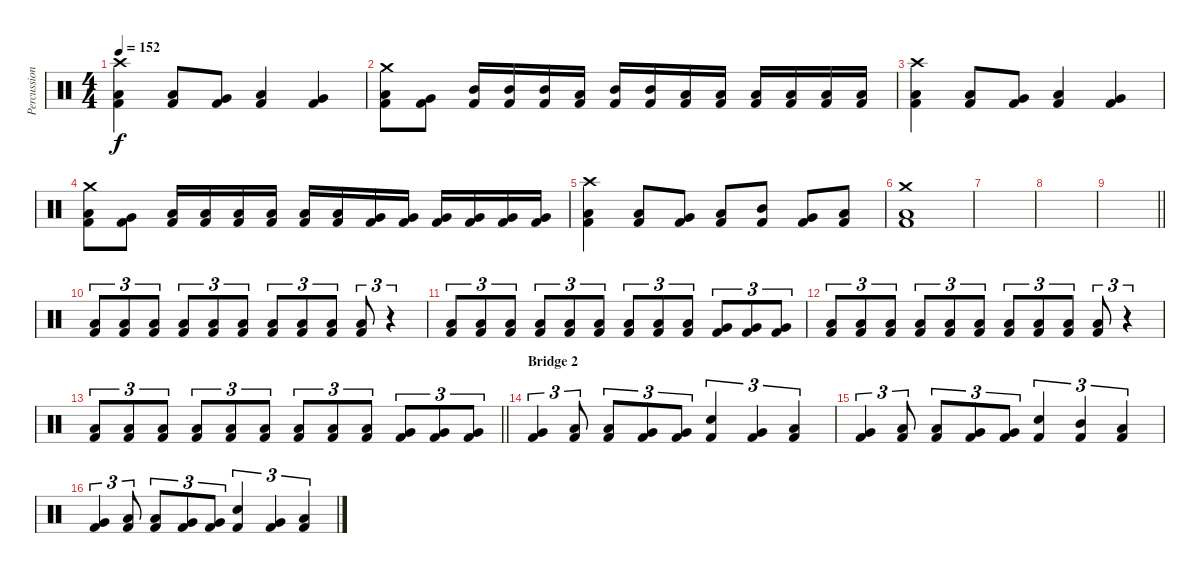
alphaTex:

\track ("Percussion" "Percussion") {instrument percussion}
\staff {score}
\articulation defaults
\ts (4 4)
\tempo 152
\clef neutral
\ks c
("Crash high (hit)" "Kick (hit) 2" "Low Tom (hit)").4{dy f} ("Kick (hit) 2" "Low Tom (hit)").8 ("Kick (hit) 2" "Very Low Tom (hit)").8 ("Kick (hit) 2" "Low Floor Tom (hit)").4 ("Kick (hit) 2" "Very Low Tom (hit)").4 |
("Crash medium (hit)" "Kick (hit) 2" "Low Tom (hit)").8 ("Kick (hit) 2" "Very Low Tom (hit)").8 ("Kick (hit) 2" "Mid Tom (hit)").16 ("Kick (hit) 2" "Mid Tom (hit)").16 ("Kick (hit) 2" "Mid Tom (hit)").16 ("Kick (hit) 2" "Low Tom (hit)").16 ("Kick (hit) 2" "Mid Tom (hit)").16 ("Kick (hit) 2" "Mid Tom (hit)").16 ("Kick (hit) 2" "Low Tom (hit)").16 ("Kick (hit) 2" "Low Tom (hit)").16 ("Kick (hit) 2" "Low Tom (hit)").16 ("Kick (hit) 2" "Low Tom (hit)").16 ("Kick (hit) 2" "Low Tom (hit)").16 ("Kick (hit) 2" "Low Tom (hit)").16 |
("Crash high (hit)" "Kick (hit) 2" "Low Tom (hit)").4 ("Kick (hit) 2" "Low Tom (hit)").8 ("Kick (hit) 2" "Very Low Tom (hit)").8 ("Kick (hit) 2" "Low Floor Tom (hit)").4 ("Kick (hit) 2" "Very Low Tom (hit)").4 |
("Crash medium (hit)" "Kick (hit) 2" "Low Tom (hit)").8 ("Kick (hit) 2" "Very Low Tom (hit)").8 ("Kick (hit) 2" "Low Tom (hit)").16 ("Kick (hit) 2" "Low Tom (hit)").16 ("Kick (hit) 2" "Low Tom (hit)").16 ("Kick (hit) 2" "Low Tom (hit)").16 ("Kick (hit) 2" "Low Tom (hit)").16 ("Kick (hit) 2" "Low Tom (hit)").16 ("Kick (hit) 2" "Very Low Tom (hit)").16 ("Kick (hit) 2" "Very Low Tom (hit)").16 ("Kick (hit) 2" "Very Low Tom (hit)").16 ("Kick (hit) 2" "Very Low Tom (hit)").16 ("Kick (hit) 2" "Very Low Tom (hit)").16 ("Kick (hit) 2" "Very Low Tom (hit)").16 |
("Crash high (hit)" "Kick (hit) 2" "Low Tom (hit)").4 ("Kick (hit) 2" "Low Tom (hit)").8 ("Kick (hit) 2" "Very Low Tom (hit)").8 ("Kick (hit) 2" "Low Floor Tom (hit)").8 ("Kick (hit) 2" "Mid Tom (hit)").8 ("Kick (hit) 2" "Very Low Tom (hit)").8 ("Kick (hit) 2" "Low Tom (hit)").8 |
("Crash medium (hit)" "Kick (hit) 2" "Low Tom (hit)").1 |
|
|
\barLineRight lightlight
|
\section ("" "")
("Kick (hit) 2" "Low Tom (hit)").8{tu (3 2)} ("Kick (hit) 2" "Low Tom (hit)").8{tu (3 2)} ("Kick (hit) 2" "Low Tom (hit)").8{tu (3 2)} ("Kick (hit) 2" "Low Tom (hit)").8{tu (3 2)} ("Kick (hit) 2" "Low Tom (hit)").8{tu (3 2)} ("Kick (hit) 2" "Low Tom (hit)").8{tu (3 2)} ("Kick (hit) 2" "Low Tom (hit)").8{tu (3 2)} ("Kick (hit) 2" "Low Tom (hit)").8{tu (3 2)} ("Kick (hit) 2" "Low Tom (hit)").8{tu (3 2)} ("Kick (hit) 2" "Low Tom (hit)").8{tu (3 2)} r.4{tu (3 2)} |
("Kick (hit) 2" "Low Tom (hit)").8{tu (3 2)} ("Kick (hit) 2" "Low Tom (hit)").8{tu (3 2)} ("Kick (hit) 2" "Low Tom (hit)").8{tu (3 2)} ("Kick (hit) 2" "Low Tom (hit)").8{tu (3 2)} ("Kick (hit) 2" "Low Tom (hit)").8{tu (3 2)} ("Kick (hit) 2" "Low Tom (hit)").8{tu (3 2)} ("Kick (hit) 2" "Low Tom (hit)").8{tu (3 2)} ("Kick (hit) 2" "Low Tom (hit)").8{tu (3 2)} ("Kick (hit) 2" "Low Tom (hit)").8{tu (3 2)} ("Kick (hit) 2" "Very Low Tom (hit)").8{tu (3 2)} ("Kick (hit) 2" "Very Low Tom (hit)").8{tu (3 2)} ("Kick (hit) 2" "Very Low Tom (hit)").8{tu (3 2)} |
("Kick (hit) 2" "Low Tom (hit)").8{tu (3 2)} ("Kick (hit) 2" "Low Tom (hit)").8{tu (3 2)} ("Kick (hit) 2" "Low Tom (hit)").8{tu (3 2)} ("Kick (hit) 2" "Low Tom (hit)").8{tu (3 2)} ("Kick (hit) 2" "Low Tom (hit)").8{tu (3 2)} ("Kick (hit) 2" "Low Tom (hit)").8{tu (3 2)} ("Kick (hit) 2" "Low Tom (hit)").8{tu (3 2)} ("Kick (hit) 2" "Low Tom (hit)").8{tu (3 2)} ("Kick (hit) 2" "Low Tom (hit)").8{tu (3 2)} ("Kick (hit) 2" "Low Tom (hit)").8{tu (3 2)} r.4{tu (3 2)} |
\barLineRight lightlight
("Kick (hit) 2" "Low Tom (hit)").8{tu (3 2)} ("Kick (hit) 2" "Low Tom (hit)").8{tu (3 2)} ("Kick (hit) 2" "Low Tom (hit)").8{tu (3 2)} ("Kick (hit) 2" "Low Tom (hit)").8{tu (3 2)} ("Kick (hit) 2" "Low Tom (hit)").8{tu (3 2)} ("Kick (hit) 2" "Low Tom (hit)").8{tu (3 2)} ("Kick (hit) 2" "Low Tom (hit)").8{tu (3 2)} ("Kick (hit) 2" "Low Tom (hit)").8{tu (3 2)} ("Kick (hit) 2" "Low Tom (hit)").8{tu (3 2)} ("Kick (hit) 2" "Very Low Tom (hit)").8{tu (3 2)} ("Kick (hit) 2" "Very Low Tom (hit)").8{tu (3 2)} ("Kick (hit) 2" "Very Low Tom (hit)").8{tu (3 2)} |
\section ("" "Bridge 2")
("Kick (hit) 2" "Very Low Tom (hit)").4{tu (3 2)} ("Kick (hit) 2" "Low Tom (hit)").8{tu (3 2)} ("Kick (hit) 2" "Low Tom (hit)").8{tu (3 2)} ("Kick (hit) 2" "Very Low Tom (hit)").8{tu (3 2)} ("Kick (hit) 2" "Very Low Tom (hit)").8{tu (3 2)} ("Electric Snare (hit)" "Kick (hit) 2").4{tu (3 2)} ("Kick (hit) 2" "Very Low Tom (hit)").4{tu (3 2)} ("Kick (hit) 2" "Low Tom (hit)").4{tu (3 2)} |
("Kick (hit) 2" "Very Low Tom (hit)").4{tu (3 2)} ("Kick (hit) 2" "Low Tom (hit)").8{tu (3 2)} ("Kick (hit) 2" "Low Tom (hit)").8{tu (3 2)} ("Kick (hit) 2" "Very Low Tom (hit)").8{tu (3 2)} ("Kick (hit) 2" "Very Low Tom (hit)").8{tu (3 2)} ("Electric Snare (hit)" "Kick (hit) 2").4{tu (3 2)} ("Kick (hit) 2" "Mid Tom (hit)").4{tu (3 2)} ("Kick (hit) 2" "Low Tom (hit)").4{tu (3 2)} |
("Kick (hit) 2" "Very Low Tom (hit)").4{tu (3 2)} ("Kick (hit) 2" "Low Tom (hit)").8{tu (3 2)} ("Kick (hit) 2" "Low Tom (hit)").8{tu (3 2)} ("Kick (hit) 2" "Very Low Tom (hit)").8{tu (3 2)} ("Kick (hit) 2" "Very Low Tom (hit)").8{tu (3 2)} ("Electric Snare (hit)" "Kick (hit) 2").4{tu (3 2)} ("Kick (hit) 2" "Very Low Tom (hit)").4{tu (3 2)} ("Kick (hit) 2" "Low Tom (hit)").4{tu (3 2)}
